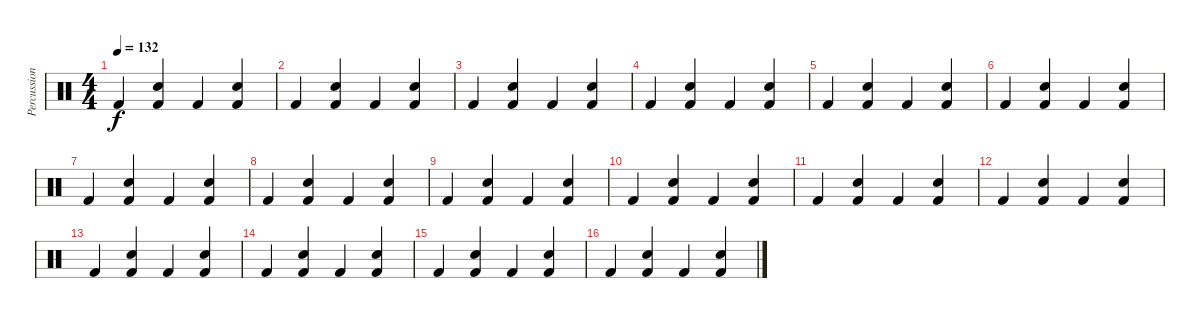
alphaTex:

\track ("Percussion" "Percussion") {instrument percussion}
\staff {score}
\articulation defaults
\ts (4 4)
\tempo 132
\clef neutral
\ks c "Kick (hit) 2".4{dy f}
("Hand Clap (hit)" "Kick (hit) 2").4 "Kick (hit) 2".4 ("Hand Clap (hit)" "Kick (hit) 2").4 |
"Kick (hit) 2".4 ("Hand Clap (hit)" "Kick (hit) 2").4 "Kick (hit) 2".4 ("Hand Clap (hit)" "Kick (hit) 2").4 |
"Kick (hit) 2".4 ("Hand Clap (hit)" "Kick (hit) 2").4 "Kick (hit) 2".4 ("Hand Clap (hit)" "Kick (hit) 2").4 |
"Kick (hit) 2".4 ("Hand Clap (hit)" "Kick (hit) 2").4 "Kick (hit) 2".4 ("Hand Clap (hit)" "Kick (hit) 2").4 |
"Kick (hit) 2".4 ("Hand Clap (hit)" "Kick (hit) 2").4 "Kick (hit) 2".4 ("Hand Clap (hit)" "Kick (hit) 2").4 |
"Kick (hit) 2".4 ("Hand Clap (hit)" "Kick (hit) 2").4 "Kick (hit) 2".4 ("Hand Clap (hit)" "Kick (hit) 2").4 |
"Kick (hit) 2".4 ("Hand Clap (hit)" "Kick (hit) 2").4 "Kick (hit) 2".4 ("Hand Clap (hit)" "Kick (hit) 2").4 |
"Kick (hit) 2".4 ("Hand Clap (hit)" "Kick (hit) 2").4 "Kick (hit) 2".4 ("Hand Clap (hit)" "Kick (hit) 2").4 |
"Kick (hit) 2".4 ("Hand Clap (hit)" "Kick (hit) 2").4 "Kick (hit) 2".4 ("Hand Clap (hit)" "Kick (hit) 2").4 |
"Kick (hit) 2".4 ("Hand Clap (hit)" "Kick (hit) 2").4 "Kick (hit) 2".4 ("Hand Clap (hit)" "Kick (hit) 2").4 |
"Kick (hit) 2".4 ("Hand Clap (hit)" "Kick (hit) 2").4 "Kick (hit) 2".4 ("Hand Clap (hit)" "Kick (hit) 2").4 |
"Kick (hit) 2".4 ("Hand Clap (hit)" "Kick (hit) 2").4 "Kick (hit) 2".4 ("Hand Clap (hit)" "Kick (hit) 2").4 |
"Kick (hit) 2".4 ("Hand Clap (hit)" "Kick (hit) 2").4 "Kick (hit) 2".4 ("Hand Clap (hit)" "Kick (hit) 2").4 |
"Kick (hit) 2".4 ("Hand Clap (hit)" "Kick (hit) 2").4 "Kick (hit) 2".4 ("Hand Clap (hit)" "Kick (hit) 2").4 |
"Kick (hit) 2".4 ("Hand Clap (hit)" "Kick (hit) 2").4 "Kick (hit) 2".4 ("Hand Clap (hit)" "Kick (hit) 2").4 |
"Kick (hit) 2".4 ("Hand Clap (hit)" "Kick (hit) 2").4 "Kick (hit) 2".4 ("Hand Clap (hit)" "Kick (hit) 2").4
